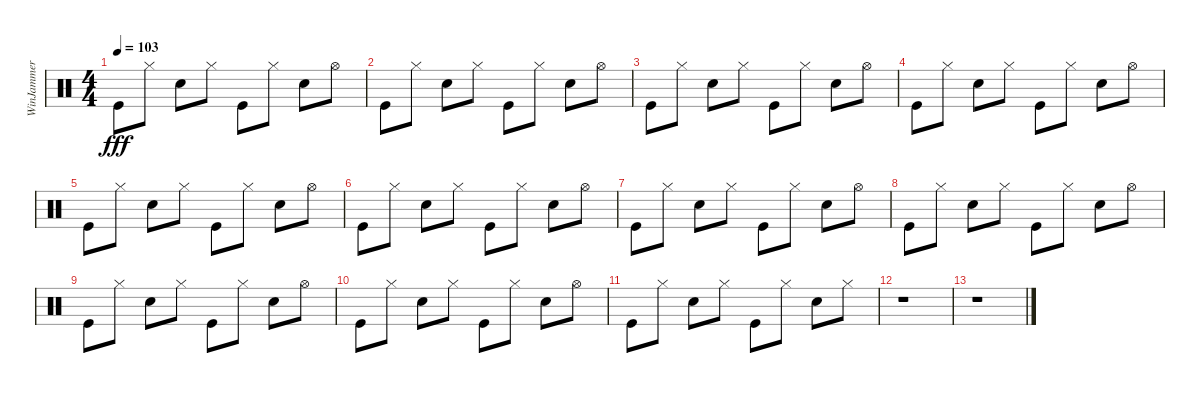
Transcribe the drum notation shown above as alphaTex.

\track ("WinJammer Demo" "WinJammer ") {instrument percussion}
\staff {score}
\articulation defaults
\ts (4 4)
\tempo 103
\clef neutral
\ks c "Kick (hit)".8{dy fff} "Hi-Hat (closed)".8 "Snare (hit) 2".8 "Hi-Hat (closed)".8 "Kick (hit)".8 "Hi-Hat (closed)".8 "Snare (hit) 2".8 "Hi-Hat (open)".8
|
"Kick (hit)".8 "Hi-Hat (closed)".8 "Snare (hit) 2".8 "Hi-Hat (closed)".8 "Kick (hit)".8 "Hi-Hat (closed)".8 "Snare (hit) 2".8 "Hi-Hat (open)".8 |
"Kick (hit)".8 "Hi-Hat (closed)".8 "Snare (hit) 2".8 "Hi-Hat (closed)".8 "Kick (hit)".8 "Hi-Hat (closed)".8 "Snare (hit) 2".8 "Hi-Hat (open)".8 |
"Kick (hit)".8 "Hi-Hat (closed)".8 "Snare (hit) 2".8 "Hi-Hat (closed)".8 "Kick (hit)".8 "Hi-Hat (closed)".8 "Snare (hit) 2".8 "Hi-Hat (open)".8 |
"Kick (hit)".8 "Hi-Hat (closed)".8 "Snare (hit) 2".8 "Hi-Hat (closed)".8 "Kick (hit)".8 "Hi-Hat (closed)".8 "Snare (hit) 2".8 "Hi-Hat (open)".8 |
"Kick (hit)".8 "Hi-Hat (closed)".8 "Snare (hit) 2".8 "Hi-Hat (closed)".8 "Kick (hit)".8 "Hi-Hat (closed)".8 "Snare (hit) 2".8 "Hi-Hat (open)".8 |
"Kick (hit)".8 "Hi-Hat (closed)".8 "Snare (hit) 2".8 "Hi-Hat (closed)".8 "Kick (hit)".8 "Hi-Hat (closed)".8 "Snare (hit) 2".8 "Hi-Hat (open)".8 |
"Kick (hit)".8 "Hi-Hat (closed)".8 "Snare (hit) 2".8 "Hi-Hat (closed)".8 "Kick (hit)".8 "Hi-Hat (closed)".8 "Snare (hit) 2".8 "Hi-Hat (open)".8 |
"Kick (hit)".8 "Hi-Hat (closed)".8 "Snare (hit) 2".8 "Hi-Hat (closed)".8 "Kick (hit)".8 "Hi-Hat (closed)".8 "Snare (hit) 2".8 "Hi-Hat (open)".8 |
"Kick (hit)".8 "Hi-Hat (closed)".8 "Snare (hit) 2".8 "Hi-Hat (closed)".8 "Kick (hit)".8 "Hi-Hat (closed)".8 "Snare (hit) 2".8 "Hi-Hat (open)".8 |
"Kick (hit)".8 "Hi-Hat (closed)".8 "Snare (hit) 2".8 "Hi-Hat (closed)".8 "Kick (hit)".8 "Hi-Hat (closed)".8 "Snare (hit) 2".8 "Hi-Hat (closed)".8 |
r.1 |
r.1
